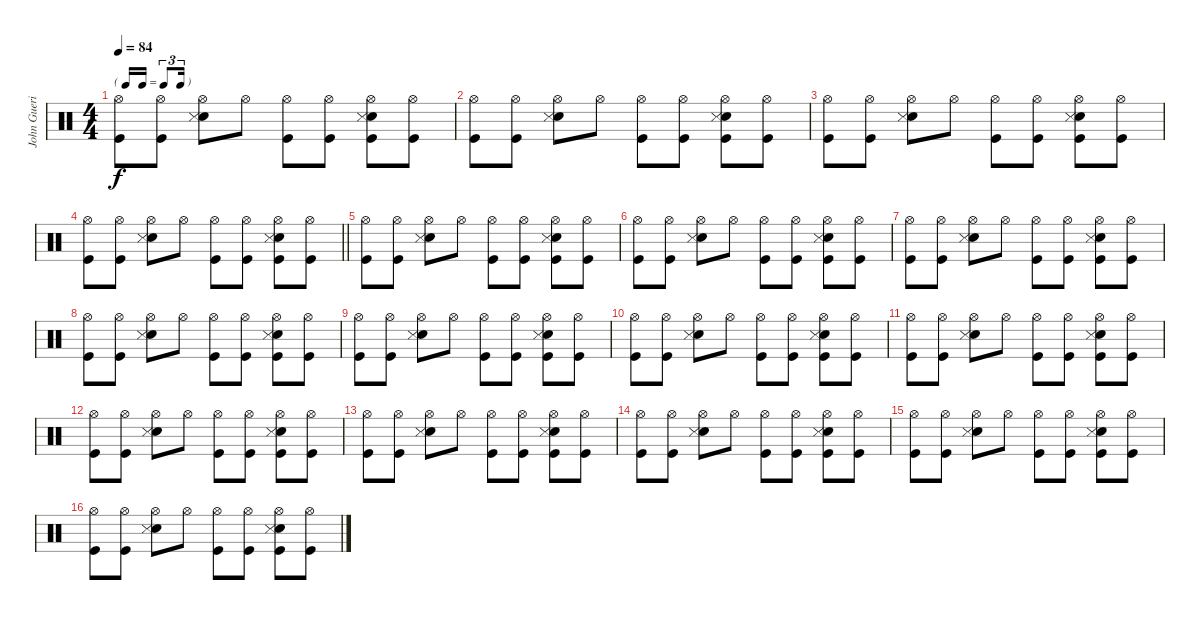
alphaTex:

\track ("John Guerin - Drums" "John Gueri") {instrument percussion}
\staff {score}
\articulation defaults
\ts (4 4)
\tf triplet16th
\tempo 84
\clef neutral
\ks c
("Hi-Hat (open)" "Kick (hit)").8{dy f} ("Hi-Hat (open)" "Kick (hit)").8 ("Hi-Hat (open)" "Electric Snare (hit)" "Snare (side stick) 3").8 "Hi-Hat (open)".8 ("Hi-Hat (open)" "Kick (hit)").8 ("Hi-Hat (open)" "Kick (hit)").8 ("Hi-Hat (open)" "Electric Snare (hit)" "Snare (side stick) 3" "Kick (hit)").8 ("Hi-Hat (open)" "Kick (hit)").8 |
("Hi-Hat (open)" "Kick (hit)").8 ("Hi-Hat (open)" "Kick (hit)").8 ("Hi-Hat (open)" "Electric Snare (hit)" "Snare (side stick) 3").8 "Hi-Hat (open)".8 ("Hi-Hat (open)" "Kick (hit)").8 ("Hi-Hat (open)" "Kick (hit)").8 ("Hi-Hat (open)" "Electric Snare (hit)" "Snare (side stick) 3" "Kick (hit)").8 ("Hi-Hat (open)" "Kick (hit)").8 |
("Hi-Hat (open)" "Kick (hit)").8 ("Hi-Hat (open)" "Kick (hit)").8 ("Hi-Hat (open)" "Electric Snare (hit)" "Snare (side stick) 3").8 "Hi-Hat (open)".8 ("Hi-Hat (open)" "Kick (hit)").8 ("Hi-Hat (open)" "Kick (hit)").8 ("Hi-Hat (open)" "Electric Snare (hit)" "Snare (side stick) 3" "Kick (hit)").8 ("Hi-Hat (open)" "Kick (hit)").8 |
\barLineRight lightlight
("Hi-Hat (open)" "Kick (hit)").8 ("Hi-Hat (open)" "Kick (hit)").8 ("Hi-Hat (open)" "Electric Snare (hit)" "Snare (side stick) 3").8 "Hi-Hat (open)".8 ("Hi-Hat (open)" "Kick (hit)").8 ("Hi-Hat (open)" "Kick (hit)").8 ("Hi-Hat (open)" "Electric Snare (hit)" "Snare (side stick) 3" "Kick (hit)").8 ("Hi-Hat (open)" "Kick (hit)").8 |
("Hi-Hat (open)" "Kick (hit)").8 ("Hi-Hat (open)" "Kick (hit)").8 ("Hi-Hat (open)" "Electric Snare (hit)" "Snare (side stick) 3").8 "Hi-Hat (open)".8 ("Hi-Hat (open)" "Kick (hit)").8 ("Hi-Hat (open)" "Kick (hit)").8 ("Hi-Hat (open)" "Electric Snare (hit)" "Snare (side stick) 3" "Kick (hit)").8 ("Hi-Hat (open)" "Kick (hit)").8 |
("Hi-Hat (open)" "Kick (hit)").8 ("Hi-Hat (open)" "Kick (hit)").8 ("Hi-Hat (open)" "Electric Snare (hit)" "Snare (side stick) 3").8 "Hi-Hat (open)".8 ("Hi-Hat (open)" "Kick (hit)").8 ("Hi-Hat (open)" "Kick (hit)").8 ("Hi-Hat (open)" "Electric Snare (hit)" "Snare (side stick) 3" "Kick (hit)").8 ("Hi-Hat (open)" "Kick (hit)").8 |
("Hi-Hat (open)" "Kick (hit)").8 ("Hi-Hat (open)" "Kick (hit)").8 ("Hi-Hat (open)" "Electric Snare (hit)" "Snare (side stick) 3").8 "Hi-Hat (open)".8 ("Hi-Hat (open)" "Kick (hit)").8 ("Hi-Hat (open)" "Kick (hit)").8 ("Hi-Hat (open)" "Electric Snare (hit)" "Snare (side stick) 3" "Kick (hit)").8 ("Hi-Hat (open)" "Kick (hit)").8 |
("Hi-Hat (open)" "Kick (hit)").8 ("Hi-Hat (open)" "Kick (hit)").8 ("Hi-Hat (open)" "Electric Snare (hit)" "Snare (side stick) 3").8 "Hi-Hat (open)".8 ("Hi-Hat (open)" "Kick (hit)").8 ("Hi-Hat (open)" "Kick (hit)").8 ("Hi-Hat (open)" "Electric Snare (hit)" "Snare (side stick) 3" "Kick (hit)").8 ("Hi-Hat (open)" "Kick (hit)").8 |
("Hi-Hat (open)" "Kick (hit)").8 ("Hi-Hat (open)" "Kick (hit)").8 ("Hi-Hat (open)" "Electric Snare (hit)" "Snare (side stick) 3").8 "Hi-Hat (open)".8 ("Hi-Hat (open)" "Kick (hit)").8 ("Hi-Hat (open)" "Kick (hit)").8 ("Hi-Hat (open)" "Electric Snare (hit)" "Snare (side stick) 3" "Kick (hit)").8 ("Hi-Hat (open)" "Kick (hit)").8 |
("Hi-Hat (open)" "Kick (hit)").8 ("Hi-Hat (open)" "Kick (hit)").8 ("Hi-Hat (open)" "Electric Snare (hit)" "Snare (side stick) 3").8 "Hi-Hat (open)".8 ("Hi-Hat (open)" "Kick (hit)").8 ("Hi-Hat (open)" "Kick (hit)").8 ("Hi-Hat (open)" "Electric Snare (hit)" "Snare (side stick) 3" "Kick (hit)").8 ("Hi-Hat (open)" "Kick (hit)").8 |
("Hi-Hat (open)" "Kick (hit)").8 ("Hi-Hat (open)" "Kick (hit)").8 ("Hi-Hat (open)" "Electric Snare (hit)" "Snare (side stick) 3").8 "Hi-Hat (open)".8 ("Hi-Hat (open)" "Kick (hit)").8 ("Hi-Hat (open)" "Kick (hit)").8 ("Hi-Hat (open)" "Electric Snare (hit)" "Snare (side stick) 3" "Kick (hit)").8 ("Hi-Hat (open)" "Kick (hit)").8 |
("Hi-Hat (open)" "Kick (hit)").8 ("Hi-Hat (open)" "Kick (hit)").8 ("Hi-Hat (open)" "Electric Snare (hit)" "Snare (side stick) 3").8 "Hi-Hat (open)".8 ("Hi-Hat (open)" "Kick (hit)").8 ("Hi-Hat (open)" "Kick (hit)").8 ("Hi-Hat (open)" "Electric Snare (hit)" "Snare (side stick) 3" "Kick (hit)").8 ("Hi-Hat (open)" "Kick (hit)").8 |
("Hi-Hat (open)" "Kick (hit)").8 ("Hi-Hat (open)" "Kick (hit)").8 ("Hi-Hat (open)" "Electric Snare (hit)" "Snare (side stick) 3").8 "Hi-Hat (open)".8 ("Hi-Hat (open)" "Kick (hit)").8 ("Hi-Hat (open)" "Kick (hit)").8 ("Hi-Hat (open)" "Electric Snare (hit)" "Snare (side stick) 3" "Kick (hit)").8 ("Hi-Hat (open)" "Kick (hit)").8 |
("Hi-Hat (open)" "Kick (hit)").8 ("Hi-Hat (open)" "Kick (hit)").8 ("Hi-Hat (open)" "Electric Snare (hit)" "Snare (side stick) 3").8 "Hi-Hat (open)".8 ("Hi-Hat (open)" "Kick (hit)").8 ("Hi-Hat (open)" "Kick (hit)").8 ("Hi-Hat (open)" "Electric Snare (hit)" "Snare (side stick) 3" "Kick (hit)").8 ("Hi-Hat (open)" "Kick (hit)").8 |
("Hi-Hat (open)" "Kick (hit)").8 ("Hi-Hat (open)" "Kick (hit)").8 ("Hi-Hat (open)" "Electric Snare (hit)" "Snare (side stick) 3").8 "Hi-Hat (open)".8 ("Hi-Hat (open)" "Kick (hit)").8 ("Hi-Hat (open)" "Kick (hit)").8 ("Hi-Hat (open)" "Electric Snare (hit)" "Snare (side stick) 3" "Kick (hit)").8 ("Hi-Hat (open)" "Kick (hit)").8 |
("Hi-Hat (open)" "Kick (hit)").8 ("Hi-Hat (open)" "Kick (hit)").8 ("Hi-Hat (open)" "Electric Snare (hit)" "Snare (side stick) 3").8 "Hi-Hat (open)".8 ("Hi-Hat (open)" "Kick (hit)").8 ("Hi-Hat (open)" "Kick (hit)").8 ("Hi-Hat (open)" "Electric Snare (hit)" "Snare (side stick) 3" "Kick (hit)").8 ("Hi-Hat (open)" "Kick (hit)").8
